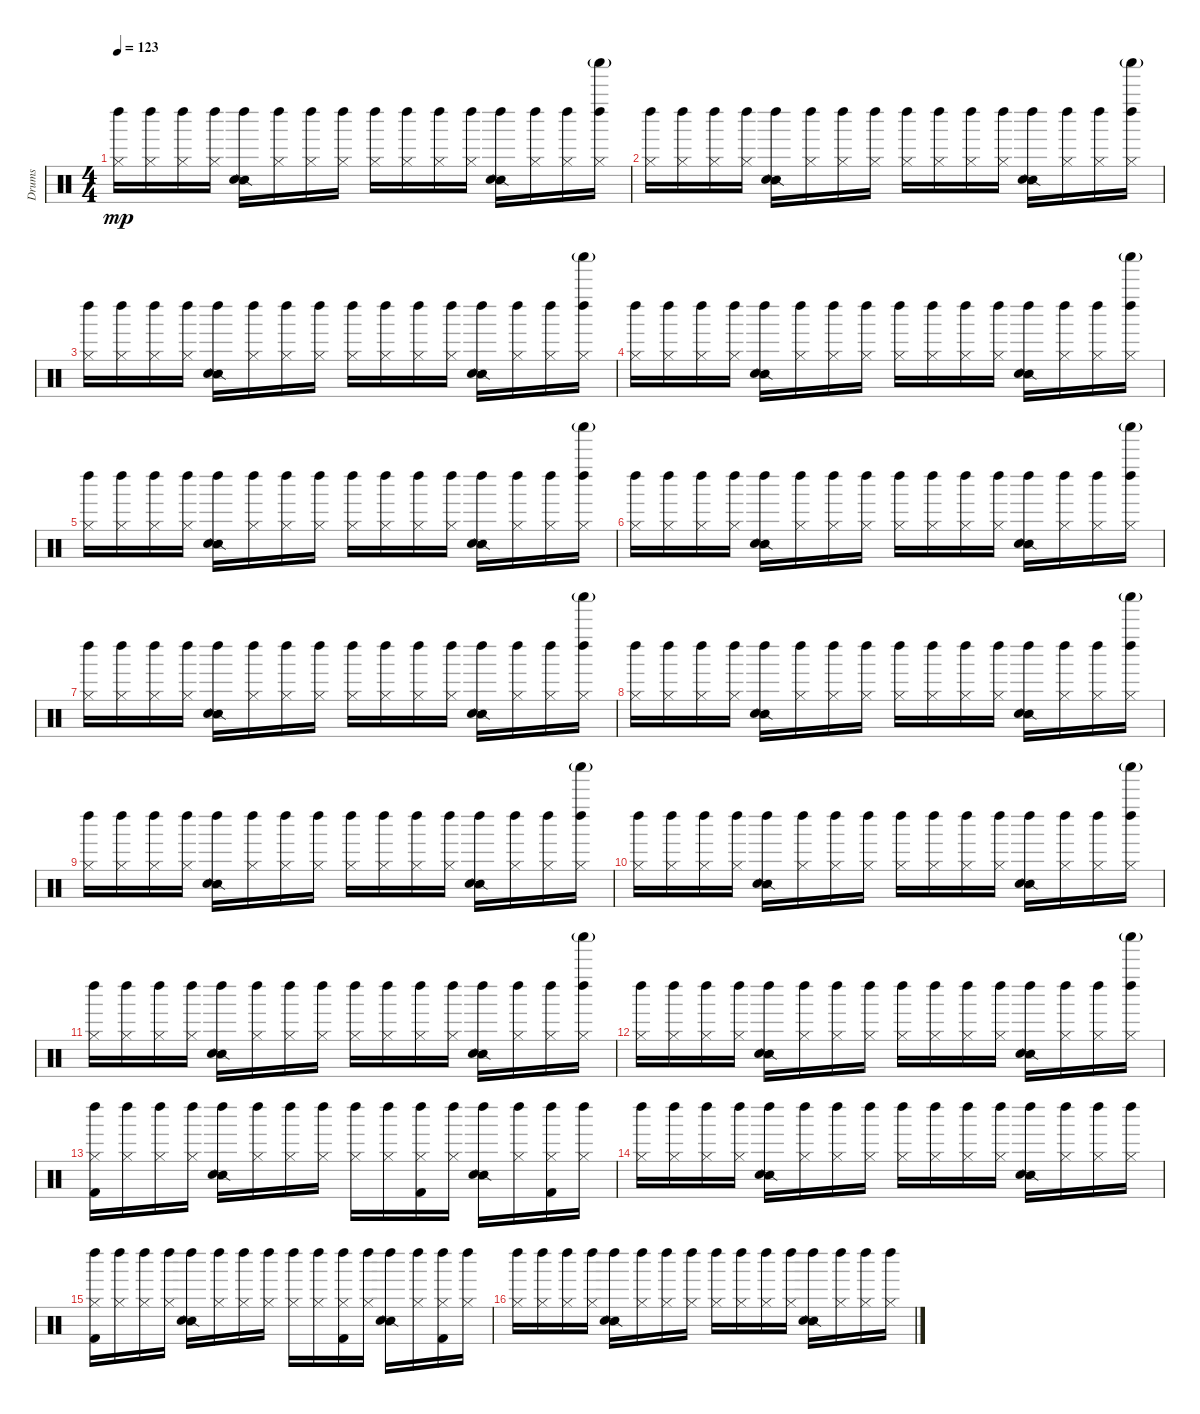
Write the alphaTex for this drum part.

\track ("Drums" "Drums") {instrument percussion}
\staff {score}
\articulation defaults
\ts (4 4)
\tempo 123
\clef neutral
\ks c
("Left Maraca (hit)" "Hi-Hat (closed)").16{dy mp} ("Left Maraca (hit)" "Hi-Hat (closed)").16 ("Left Maraca (hit)" "Hi-Hat (closed)").16 ("Left Maraca (hit)" "Hi-Hat (closed)").16 ("Left Maraca (hit)" "Snare (side stick) 2" "Hand Clap (hit)").16 ("Left Maraca (hit)" "Hi-Hat (closed)").16 ("Left Maraca (hit)" "Hi-Hat (closed)").16 ("Left Maraca (hit)" "Hi-Hat (closed)").16 ("Left Maraca (hit)" "Hi-Hat (closed)").16 ("Left Maraca (hit)" "Hi-Hat (closed)").16 ("Left Maraca (hit)" "Hi-Hat (closed)").16 ("Left Maraca (hit)" "Hi-Hat (closed)").16 ("Left Maraca (hit)" "Snare (side stick) 2" "Hand Clap (hit)").16 ("Left Maraca (hit)" "Hi-Hat (closed)").16 ("Left Maraca (hit)" "Hi-Hat (closed)").16 ("Shaker (hit)"{g} "Left Maraca (hit)" "Hi-Hat (closed)").16 |
("Left Maraca (hit)" "Hi-Hat (closed)").16 ("Left Maraca (hit)" "Hi-Hat (closed)").16 ("Left Maraca (hit)" "Hi-Hat (closed)").16 ("Left Maraca (hit)" "Hi-Hat (closed)").16 ("Left Maraca (hit)" "Snare (side stick) 2" "Hand Clap (hit)").16 ("Left Maraca (hit)" "Hi-Hat (closed)").16 ("Left Maraca (hit)" "Hi-Hat (closed)").16 ("Left Maraca (hit)" "Hi-Hat (closed)").16 ("Left Maraca (hit)" "Hi-Hat (closed)").16 ("Left Maraca (hit)" "Hi-Hat (closed)").16 ("Left Maraca (hit)" "Hi-Hat (closed)").16 ("Left Maraca (hit)" "Hi-Hat (closed)").16 ("Left Maraca (hit)" "Snare (side stick) 2" "Hand Clap (hit)").16 ("Left Maraca (hit)" "Hi-Hat (closed)").16 ("Left Maraca (hit)" "Hi-Hat (closed)").16 ("Shaker (hit)"{g} "Left Maraca (hit)" "Hi-Hat (closed)").16 |
("Left Maraca (hit)" "Hi-Hat (closed)").16 ("Left Maraca (hit)" "Hi-Hat (closed)").16 ("Left Maraca (hit)" "Hi-Hat (closed)").16 ("Left Maraca (hit)" "Hi-Hat (closed)").16 ("Left Maraca (hit)" "Snare (side stick) 2" "Hand Clap (hit)").16 ("Left Maraca (hit)" "Hi-Hat (closed)").16 ("Left Maraca (hit)" "Hi-Hat (closed)").16 ("Left Maraca (hit)" "Hi-Hat (closed)").16 ("Left Maraca (hit)" "Hi-Hat (closed)").16 ("Left Maraca (hit)" "Hi-Hat (closed)").16 ("Left Maraca (hit)" "Hi-Hat (closed)").16 ("Left Maraca (hit)" "Hi-Hat (closed)").16 ("Left Maraca (hit)" "Snare (side stick) 2" "Hand Clap (hit)").16 ("Left Maraca (hit)" "Hi-Hat (closed)").16 ("Left Maraca (hit)" "Hi-Hat (closed)").16 ("Shaker (hit)"{g} "Left Maraca (hit)" "Hi-Hat (closed)").16 |
("Left Maraca (hit)" "Hi-Hat (closed)").16 ("Left Maraca (hit)" "Hi-Hat (closed)").16 ("Left Maraca (hit)" "Hi-Hat (closed)").16 ("Left Maraca (hit)" "Hi-Hat (closed)").16 ("Left Maraca (hit)" "Snare (side stick) 2" "Hand Clap (hit)").16 ("Left Maraca (hit)" "Hi-Hat (closed)").16 ("Left Maraca (hit)" "Hi-Hat (closed)").16 ("Left Maraca (hit)" "Hi-Hat (closed)").16 ("Left Maraca (hit)" "Hi-Hat (closed)").16 ("Left Maraca (hit)" "Hi-Hat (closed)").16 ("Left Maraca (hit)" "Hi-Hat (closed)").16 ("Left Maraca (hit)" "Hi-Hat (closed)").16 ("Left Maraca (hit)" "Snare (side stick) 2" "Hand Clap (hit)").16 ("Left Maraca (hit)" "Hi-Hat (closed)").16 ("Left Maraca (hit)" "Hi-Hat (closed)").16 ("Shaker (hit)"{g} "Left Maraca (hit)" "Hi-Hat (closed)").16 |
("Left Maraca (hit)" "Hi-Hat (closed)").16 ("Left Maraca (hit)" "Hi-Hat (closed)").16 ("Left Maraca (hit)" "Hi-Hat (closed)").16 ("Left Maraca (hit)" "Hi-Hat (closed)").16 ("Left Maraca (hit)" "Snare (side stick) 2" "Hand Clap (hit)").16 ("Left Maraca (hit)" "Hi-Hat (closed)").16 ("Left Maraca (hit)" "Hi-Hat (closed)").16 ("Left Maraca (hit)" "Hi-Hat (closed)").16 ("Left Maraca (hit)" "Hi-Hat (closed)").16 ("Left Maraca (hit)" "Hi-Hat (closed)").16 ("Left Maraca (hit)" "Hi-Hat (closed)").16 ("Left Maraca (hit)" "Hi-Hat (closed)").16 ("Left Maraca (hit)" "Snare (side stick) 2" "Hand Clap (hit)").16 ("Left Maraca (hit)" "Hi-Hat (closed)").16 ("Left Maraca (hit)" "Hi-Hat (closed)").16 ("Shaker (hit)"{g} "Left Maraca (hit)" "Hi-Hat (closed)").16 |
("Left Maraca (hit)" "Hi-Hat (closed)").16 ("Left Maraca (hit)" "Hi-Hat (closed)").16 ("Left Maraca (hit)" "Hi-Hat (closed)").16 ("Left Maraca (hit)" "Hi-Hat (closed)").16 ("Left Maraca (hit)" "Snare (side stick) 2" "Hand Clap (hit)").16 ("Left Maraca (hit)" "Hi-Hat (closed)").16 ("Left Maraca (hit)" "Hi-Hat (closed)").16 ("Left Maraca (hit)" "Hi-Hat (closed)").16 ("Left Maraca (hit)" "Hi-Hat (closed)").16 ("Left Maraca (hit)" "Hi-Hat (closed)").16 ("Left Maraca (hit)" "Hi-Hat (closed)").16 ("Left Maraca (hit)" "Hi-Hat (closed)").16 ("Left Maraca (hit)" "Snare (side stick) 2" "Hand Clap (hit)").16 ("Left Maraca (hit)" "Hi-Hat (closed)").16 ("Left Maraca (hit)" "Hi-Hat (closed)").16 ("Shaker (hit)"{g} "Left Maraca (hit)" "Hi-Hat (closed)").16 |
("Left Maraca (hit)" "Hi-Hat (closed)").16 ("Left Maraca (hit)" "Hi-Hat (closed)").16 ("Left Maraca (hit)" "Hi-Hat (closed)").16 ("Left Maraca (hit)" "Hi-Hat (closed)").16 ("Left Maraca (hit)" "Snare (side stick) 2" "Hand Clap (hit)").16 ("Left Maraca (hit)" "Hi-Hat (closed)").16 ("Left Maraca (hit)" "Hi-Hat (closed)").16 ("Left Maraca (hit)" "Hi-Hat (closed)").16 ("Left Maraca (hit)" "Hi-Hat (closed)").16 ("Left Maraca (hit)" "Hi-Hat (closed)").16 ("Left Maraca (hit)" "Hi-Hat (closed)").16 ("Left Maraca (hit)" "Hi-Hat (closed)").16 ("Left Maraca (hit)" "Snare (side stick) 2" "Hand Clap (hit)").16 ("Left Maraca (hit)" "Hi-Hat (closed)").16 ("Left Maraca (hit)" "Hi-Hat (closed)").16 ("Shaker (hit)"{g} "Left Maraca (hit)" "Hi-Hat (closed)").16 |
("Left Maraca (hit)" "Hi-Hat (closed)").16 ("Left Maraca (hit)" "Hi-Hat (closed)").16 ("Left Maraca (hit)" "Hi-Hat (closed)").16 ("Left Maraca (hit)" "Hi-Hat (closed)").16 ("Left Maraca (hit)" "Snare (side stick) 2" "Hand Clap (hit)").16 ("Left Maraca (hit)" "Hi-Hat (closed)").16 ("Left Maraca (hit)" "Hi-Hat (closed)").16 ("Left Maraca (hit)" "Hi-Hat (closed)").16 ("Left Maraca (hit)" "Hi-Hat (closed)").16 ("Left Maraca (hit)" "Hi-Hat (closed)").16 ("Left Maraca (hit)" "Hi-Hat (closed)").16 ("Left Maraca (hit)" "Hi-Hat (closed)").16 ("Left Maraca (hit)" "Snare (side stick) 2" "Hand Clap (hit)").16 ("Left Maraca (hit)" "Hi-Hat (closed)").16 ("Left Maraca (hit)" "Hi-Hat (closed)").16 ("Shaker (hit)"{g} "Left Maraca (hit)" "Hi-Hat (closed)").16 |
("Left Maraca (hit)" "Hi-Hat (closed)").16 ("Left Maraca (hit)" "Hi-Hat (closed)").16 ("Left Maraca (hit)" "Hi-Hat (closed)").16 ("Left Maraca (hit)" "Hi-Hat (closed)").16 ("Left Maraca (hit)" "Snare (side stick) 2" "Hand Clap (hit)").16 ("Left Maraca (hit)" "Hi-Hat (closed)").16 ("Left Maraca (hit)" "Hi-Hat (closed)").16 ("Left Maraca (hit)" "Hi-Hat (closed)").16 ("Left Maraca (hit)" "Hi-Hat (closed)").16 ("Left Maraca (hit)" "Hi-Hat (closed)").16 ("Left Maraca (hit)" "Hi-Hat (closed)").16 ("Left Maraca (hit)" "Hi-Hat (closed)").16 ("Left Maraca (hit)" "Snare (side stick) 2" "Hand Clap (hit)").16 ("Left Maraca (hit)" "Hi-Hat (closed)").16 ("Left Maraca (hit)" "Hi-Hat (closed)").16 ("Shaker (hit)"{g} "Left Maraca (hit)" "Hi-Hat (closed)").16 |
("Left Maraca (hit)" "Hi-Hat (closed)").16 ("Left Maraca (hit)" "Hi-Hat (closed)").16 ("Left Maraca (hit)" "Hi-Hat (closed)").16 ("Left Maraca (hit)" "Hi-Hat (closed)").16 ("Left Maraca (hit)" "Snare (side stick) 2" "Hand Clap (hit)").16 ("Left Maraca (hit)" "Hi-Hat (closed)").16 ("Left Maraca (hit)" "Hi-Hat (closed)").16 ("Left Maraca (hit)" "Hi-Hat (closed)").16 ("Left Maraca (hit)" "Hi-Hat (closed)").16 ("Left Maraca (hit)" "Hi-Hat (closed)").16 ("Left Maraca (hit)" "Hi-Hat (closed)").16 ("Left Maraca (hit)" "Hi-Hat (closed)").16 ("Left Maraca (hit)" "Snare (side stick) 2" "Hand Clap (hit)").16 ("Left Maraca (hit)" "Hi-Hat (closed)").16 ("Left Maraca (hit)" "Hi-Hat (closed)").16 ("Shaker (hit)"{g} "Left Maraca (hit)" "Hi-Hat (closed)").16 |
("Left Maraca (hit)" "Hi-Hat (closed)").16 ("Left Maraca (hit)" "Hi-Hat (closed)").16 ("Left Maraca (hit)" "Hi-Hat (closed)").16 ("Left Maraca (hit)" "Hi-Hat (closed)").16 ("Left Maraca (hit)" "Snare (side stick) 2" "Hand Clap (hit)").16 ("Left Maraca (hit)" "Hi-Hat (closed)").16 ("Left Maraca (hit)" "Hi-Hat (closed)").16 ("Left Maraca (hit)" "Hi-Hat (closed)").16 ("Left Maraca (hit)" "Hi-Hat (closed)").16 ("Left Maraca (hit)" "Hi-Hat (closed)").16 ("Left Maraca (hit)" "Hi-Hat (closed)").16 ("Left Maraca (hit)" "Hi-Hat (closed)").16 ("Left Maraca (hit)" "Snare (side stick) 2" "Hand Clap (hit)").16 ("Left Maraca (hit)" "Hi-Hat (closed)").16 ("Left Maraca (hit)" "Hi-Hat (closed)").16 ("Shaker (hit)"{g} "Left Maraca (hit)" "Hi-Hat (closed)").16 |
("Left Maraca (hit)" "Hi-Hat (closed)").16 ("Left Maraca (hit)" "Hi-Hat (closed)").16 ("Left Maraca (hit)" "Hi-Hat (closed)").16 ("Left Maraca (hit)" "Hi-Hat (closed)").16 ("Left Maraca (hit)" "Snare (side stick) 2" "Hand Clap (hit)").16 ("Left Maraca (hit)" "Hi-Hat (closed)").16 ("Left Maraca (hit)" "Hi-Hat (closed)").16 ("Left Maraca (hit)" "Hi-Hat (closed)").16 ("Left Maraca (hit)" "Hi-Hat (closed)").16 ("Left Maraca (hit)" "Hi-Hat (closed)").16 ("Left Maraca (hit)" "Hi-Hat (closed)").16 ("Left Maraca (hit)" "Hi-Hat (closed)").16 ("Left Maraca (hit)" "Snare (side stick) 2" "Hand Clap (hit)").16 ("Left Maraca (hit)" "Hi-Hat (closed)").16 ("Left Maraca (hit)" "Hi-Hat (closed)").16 ("Shaker (hit)"{g} "Left Maraca (hit)" "Hi-Hat (closed)").16 |
("Left Maraca (hit)" "Hi-Hat (closed)" "Kick (hit) 2").16 ("Left Maraca (hit)" "Hi-Hat (closed)").16 ("Left Maraca (hit)" "Hi-Hat (closed)").16 ("Left Maraca (hit)" "Hi-Hat (closed)").16 ("Left Maraca (hit)" "Snare (side stick) 2" "Hand Clap (hit)").16 ("Left Maraca (hit)" "Hi-Hat (closed)").16 ("Left Maraca (hit)" "Hi-Hat (closed)").16 ("Left Maraca (hit)" "Hi-Hat (closed)").16 ("Left Maraca (hit)" "Hi-Hat (closed)").16 ("Left Maraca (hit)" "Hi-Hat (closed)").16 ("Left Maraca (hit)" "Hi-Hat (closed)" "Kick (hit) 2").16 ("Left Maraca (hit)" "Hi-Hat (closed)").16 ("Left Maraca (hit)" "Snare (side stick) 2" "Hand Clap (hit)").16 ("Left Maraca (hit)" "Hi-Hat (closed)").16 ("Left Maraca (hit)" "Hi-Hat (closed)" "Kick (hit) 2").16 ("Left Maraca (hit)" "Hi-Hat (closed)").16 |
("Left Maraca (hit)" "Hi-Hat (closed)").16 ("Left Maraca (hit)" "Hi-Hat (closed)").16 ("Left Maraca (hit)" "Hi-Hat (closed)").16 ("Left Maraca (hit)" "Hi-Hat (closed)").16 ("Left Maraca (hit)" "Snare (side stick) 2" "Hand Clap (hit)").16 ("Left Maraca (hit)" "Hi-Hat (closed)").16 ("Left Maraca (hit)" "Hi-Hat (closed)").16 ("Left Maraca (hit)" "Hi-Hat (closed)").16 ("Left Maraca (hit)" "Hi-Hat (closed)").16 ("Left Maraca (hit)" "Hi-Hat (closed)").16 ("Left Maraca (hit)" "Hi-Hat (closed)").16 ("Left Maraca (hit)" "Hi-Hat (closed)").16 ("Left Maraca (hit)" "Snare (side stick) 2" "Hand Clap (hit)").16 ("Left Maraca (hit)" "Hi-Hat (closed)").16 ("Left Maraca (hit)" "Hi-Hat (closed)").16 ("Left Maraca (hit)" "Hi-Hat (closed)").16 |
("Left Maraca (hit)" "Hi-Hat (closed)" "Kick (hit) 2").16 ("Left Maraca (hit)" "Hi-Hat (closed)").16 ("Left Maraca (hit)" "Hi-Hat (closed)").16 ("Left Maraca (hit)" "Hi-Hat (closed)").16 ("Left Maraca (hit)" "Snare (side stick) 2" "Hand Clap (hit)").16 ("Left Maraca (hit)" "Hi-Hat (closed)").16 ("Left Maraca (hit)" "Hi-Hat (closed)").16 ("Left Maraca (hit)" "Hi-Hat (closed)").16 ("Left Maraca (hit)" "Hi-Hat (closed)").16 ("Left Maraca (hit)" "Hi-Hat (closed)").16 ("Left Maraca (hit)" "Hi-Hat (closed)" "Kick (hit) 2").16 ("Left Maraca (hit)" "Hi-Hat (closed)").16 ("Left Maraca (hit)" "Snare (side stick) 2" "Hand Clap (hit)").16 ("Left Maraca (hit)" "Hi-Hat (closed)").16 ("Left Maraca (hit)" "Hi-Hat (closed)" "Kick (hit) 2").16 ("Left Maraca (hit)" "Hi-Hat (closed)").16 |
("Left Maraca (hit)" "Hi-Hat (closed)").16 ("Left Maraca (hit)" "Hi-Hat (closed)").16 ("Left Maraca (hit)" "Hi-Hat (closed)").16 ("Left Maraca (hit)" "Hi-Hat (closed)").16 ("Left Maraca (hit)" "Snare (side stick) 2" "Hand Clap (hit)").16 ("Left Maraca (hit)" "Hi-Hat (closed)").16 ("Left Maraca (hit)" "Hi-Hat (closed)").16 ("Left Maraca (hit)" "Hi-Hat (closed)").16 ("Left Maraca (hit)" "Hi-Hat (closed)").16 ("Left Maraca (hit)" "Hi-Hat (closed)").16 ("Left Maraca (hit)" "Hi-Hat (closed)").16 ("Left Maraca (hit)" "Hi-Hat (closed)").16 ("Left Maraca (hit)" "Snare (side stick) 2" "Hand Clap (hit)").16 ("Left Maraca (hit)" "Hi-Hat (closed)").16 ("Left Maraca (hit)" "Hi-Hat (closed)").16 ("Left Maraca (hit)" "Hi-Hat (closed)").16
